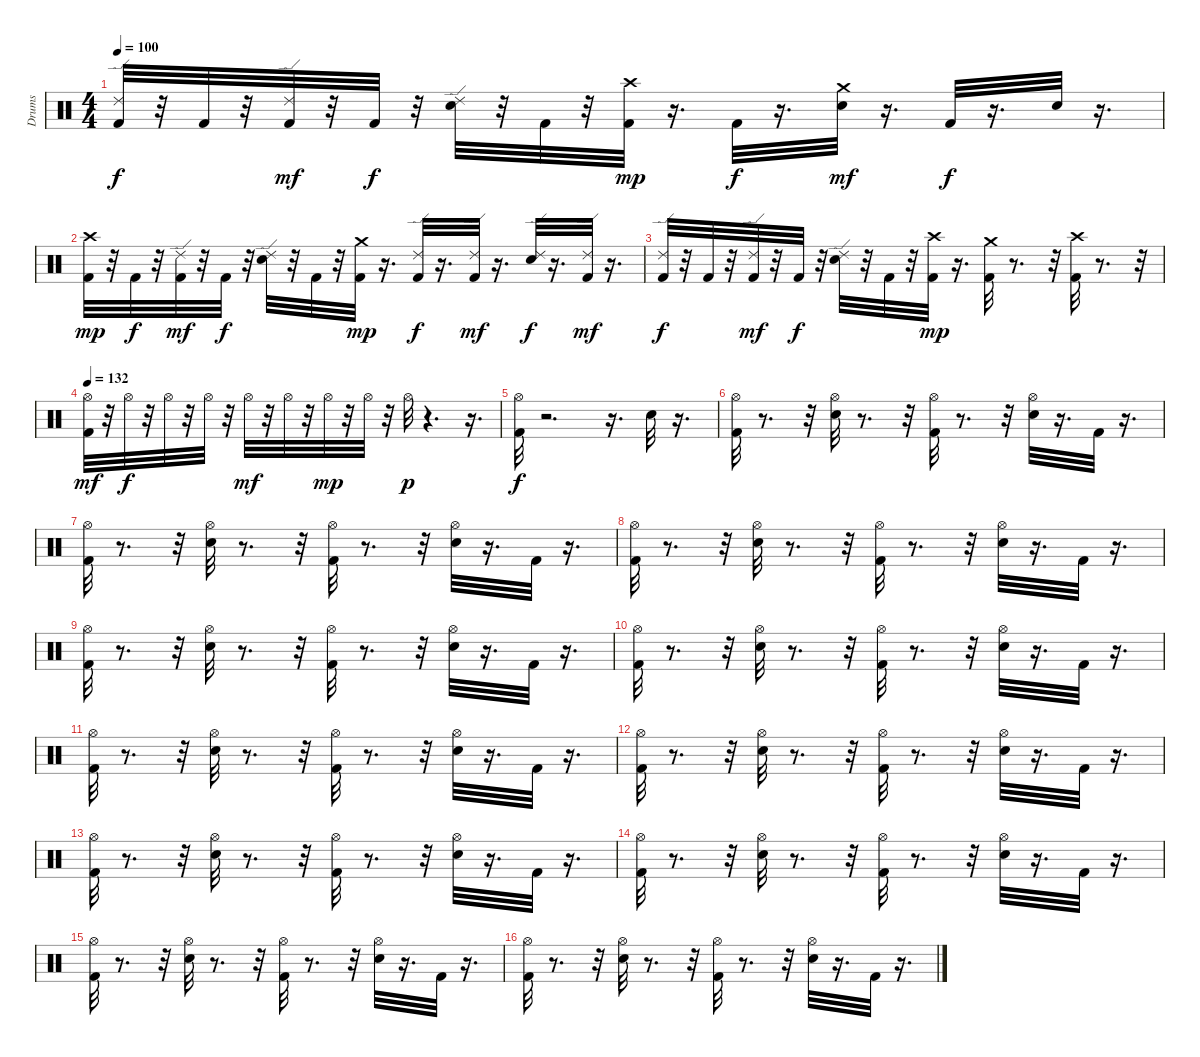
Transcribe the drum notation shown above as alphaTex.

\track ("Drums" "Drums") {instrument percussion}
\staff {score}
\articulation defaults
\ts (4 4)
\tempo 100
\clef neutral
\ks c
("Kick (hit) 2" "Ride (edge) 2").32{dy f} r.32 "Kick (hit) 2".32 r.32 ("Kick (hit) 2" "Ride (edge) 2").32{dy mf} r.32 "Kick (hit) 2".32{dy f} r.32 ("Snare (hit) 2" "Ride (edge) 2").32 r.32 "Kick (hit) 2".32 r.32 ("Kick (hit) 2" "Crash high (hit)").32{dy mp} r.16{d} "Kick (hit) 2".32{dy f} r.16{d} ("Snare (hit) 2" "Crash medium (hit)").32{dy mf} r.16{d} "Kick (hit) 2".32{dy f} r.16{d} "Snare (hit) 2".32 r.16{d} |
("Kick (hit) 2" "Crash high (hit)").32{dy mp} r.32 "Kick (hit) 2".32{dy f} r.32 ("Kick (hit) 2" "Ride (edge) 2").32{dy mf} r.32 "Kick (hit) 2".32{dy f} r.32 ("Snare (hit) 2" "Ride (edge) 2").32 r.32 "Kick (hit) 2".32 r.32 ("Kick (hit) 2" "Crash medium (hit)").32{dy mp} r.16{d} ("Kick (hit) 2" "Ride (edge) 2").32{dy f} r.16{d} ("Kick (hit) 2" "Ride (edge) 2").32{dy mf} r.16{d} ("Snare (hit) 2" "Ride (edge) 2").32{dy f} r.16{d} ("Kick (hit) 2" "Ride (edge) 2").32{dy mf} r.16{d} |
("Kick (hit) 2" "Ride (edge) 2").32{dy f} r.32 "Kick (hit) 2".32 r.32 ("Kick (hit) 2" "Ride (edge) 2").32{dy mf} r.32 "Kick (hit) 2".32{dy f} r.32 ("Snare (hit) 2" "Ride (edge) 2").32 r.32 "Kick (hit) 2".32 r.32 ("Kick (hit) 2" "Crash high (hit)").32{dy mp} r.16{d} ("Kick (hit) 2" "Crash medium (hit)").32 r.8{d} r.32 ("Kick (hit) 2" "Crash high (hit)").32 r.8{d} r.32 |
\tempo 132
("Kick (hit) 2" "Hi-Hat (open)").32{dy mf} r.32 "Hi-Hat (open)".32{dy f} r.32 "Hi-Hat (open)".32 r.32 "Hi-Hat (open)".32 r.32 "Hi-Hat (open)".32{dy mf} r.32 "Hi-Hat (open)".32 r.32 "Hi-Hat (open)".32{dy mp} r.32 "Hi-Hat (open)".32 r.32 "Hi-Hat (open)".32{dy p} r.4{d} r.16{d} |
("Kick (hit) 2" "Hi-Hat (open)").32{dy f} r.2{d} r.16{d} "Snare (hit) 2".32 r.16{d} |
("Kick (hit) 2" "Hi-Hat (open)").32 r.8{d} r.32 ("Snare (hit) 2" "Hi-Hat (open)").32 r.8{d} r.32 ("Kick (hit) 2" "Hi-Hat (open)").32 r.8{d} r.32 ("Snare (hit) 2" "Hi-Hat (open)").32 r.16{d} "Kick (hit) 2".32 r.16{d} |
("Kick (hit) 2" "Hi-Hat (open)").32 r.8{d} r.32 ("Snare (hit) 2" "Hi-Hat (open)").32 r.8{d} r.32 ("Kick (hit) 2" "Hi-Hat (open)").32 r.8{d} r.32 ("Snare (hit) 2" "Hi-Hat (open)").32 r.16{d} "Kick (hit) 2".32 r.16{d} |
("Kick (hit) 2" "Hi-Hat (open)").32 r.8{d} r.32 ("Snare (hit) 2" "Hi-Hat (open)").32 r.8{d} r.32 ("Kick (hit) 2" "Hi-Hat (open)").32 r.8{d} r.32 ("Snare (hit) 2" "Hi-Hat (open)").32 r.16{d} "Kick (hit) 2".32 r.16{d} |
("Kick (hit) 2" "Hi-Hat (open)").32 r.8{d} r.32 ("Snare (hit) 2" "Hi-Hat (open)").32 r.8{d} r.32 ("Kick (hit) 2" "Hi-Hat (open)").32 r.8{d} r.32 ("Snare (hit) 2" "Hi-Hat (open)").32 r.16{d} "Kick (hit) 2".32 r.16{d} |
("Kick (hit) 2" "Hi-Hat (open)").32 r.8{d} r.32 ("Snare (hit) 2" "Hi-Hat (open)").32 r.8{d} r.32 ("Kick (hit) 2" "Hi-Hat (open)").32 r.8{d} r.32 ("Snare (hit) 2" "Hi-Hat (open)").32 r.16{d} "Kick (hit) 2".32 r.16{d} |
("Kick (hit) 2" "Hi-Hat (open)").32 r.8{d} r.32 ("Snare (hit) 2" "Hi-Hat (open)").32 r.8{d} r.32 ("Kick (hit) 2" "Hi-Hat (open)").32 r.8{d} r.32 ("Snare (hit) 2" "Hi-Hat (open)").32 r.16{d} "Kick (hit) 2".32 r.16{d} |
("Kick (hit) 2" "Hi-Hat (open)").32 r.8{d} r.32 ("Snare (hit) 2" "Hi-Hat (open)").32 r.8{d} r.32 ("Kick (hit) 2" "Hi-Hat (open)").32 r.8{d} r.32 ("Snare (hit) 2" "Hi-Hat (open)").32 r.16{d} "Kick (hit) 2".32 r.16{d} |
("Kick (hit) 2" "Hi-Hat (open)").32 r.8{d} r.32 ("Snare (hit) 2" "Hi-Hat (open)").32 r.8{d} r.32 ("Kick (hit) 2" "Hi-Hat (open)").32 r.8{d} r.32 ("Snare (hit) 2" "Hi-Hat (open)").32 r.16{d} "Kick (hit) 2".32 r.16{d} |
("Kick (hit) 2" "Hi-Hat (open)").32 r.8{d} r.32 ("Snare (hit) 2" "Hi-Hat (open)").32 r.8{d} r.32 ("Kick (hit) 2" "Hi-Hat (open)").32 r.8{d} r.32 ("Snare (hit) 2" "Hi-Hat (open)").32 r.16{d} "Kick (hit) 2".32 r.16{d} |
("Kick (hit) 2" "Hi-Hat (open)").32 r.8{d} r.32 ("Snare (hit) 2" "Hi-Hat (open)").32 r.8{d} r.32 ("Kick (hit) 2" "Hi-Hat (open)").32 r.8{d} r.32 ("Snare (hit) 2" "Hi-Hat (open)").32 r.16{d} "Kick (hit) 2".32 r.16{d} |
("Kick (hit) 2" "Hi-Hat (open)").32 r.8{d} r.32 ("Snare (hit) 2" "Hi-Hat (open)").32 r.8{d} r.32 ("Kick (hit) 2" "Hi-Hat (open)").32 r.8{d} r.32 ("Snare (hit) 2" "Hi-Hat (open)").32 r.16{d} "Kick (hit) 2".32 r.16{d}
